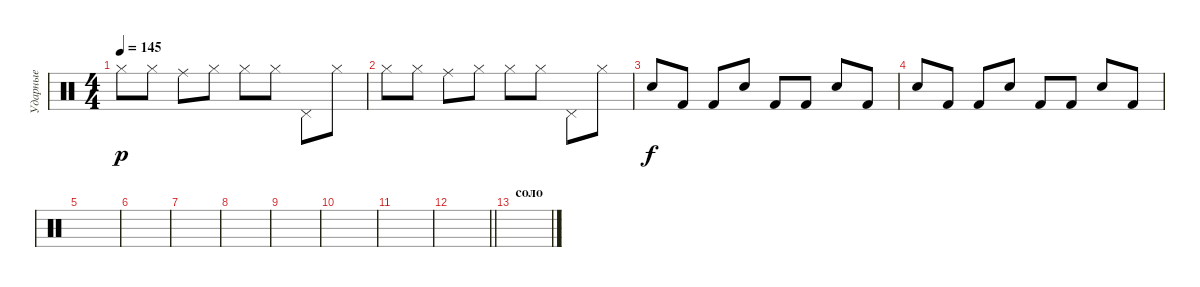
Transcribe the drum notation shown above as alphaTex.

\track ("Ударные" "Ударные") {instrument percussion}
\staff {score}
\articulation defaults
\ts (4 4)
\tempo 145
\clef neutral
\ks c "Hi-Hat (closed)".8{dy p} "Hi-Hat (closed)".8 "Ride (middle)".8 "Hi-Hat (closed)".8 "Hi-Hat (closed)".8 "Hi-Hat (closed)".8 "Pedal Hi-Hat (hit)".8 "Hi-Hat (closed)".8
|
"Hi-Hat (closed)".8 "Hi-Hat (closed)".8 "Ride (middle)".8 "Hi-Hat (closed)".8 "Hi-Hat (closed)".8 "Hi-Hat (closed)".8 "Pedal Hi-Hat (hit)".8 "Hi-Hat (closed)".8 |
"Snare (hit) 2".8{dy f} "Kick (hit) 2".8 "Kick (hit) 2".8 "Snare (hit) 2".8 "Kick (hit) 2".8 "Kick (hit) 2".8 "Snare (hit) 2".8 "Kick (hit) 2".8 |
"Snare (hit) 2".8 "Kick (hit) 2".8 "Kick (hit) 2".8 "Snare (hit) 2".8 "Kick (hit) 2".8 "Kick (hit) 2".8 "Snare (hit) 2".8 "Kick (hit) 2".8 |
|
|
|
|
|
|
|
\barLineRight lightlight
|
\section ("" "соло")
